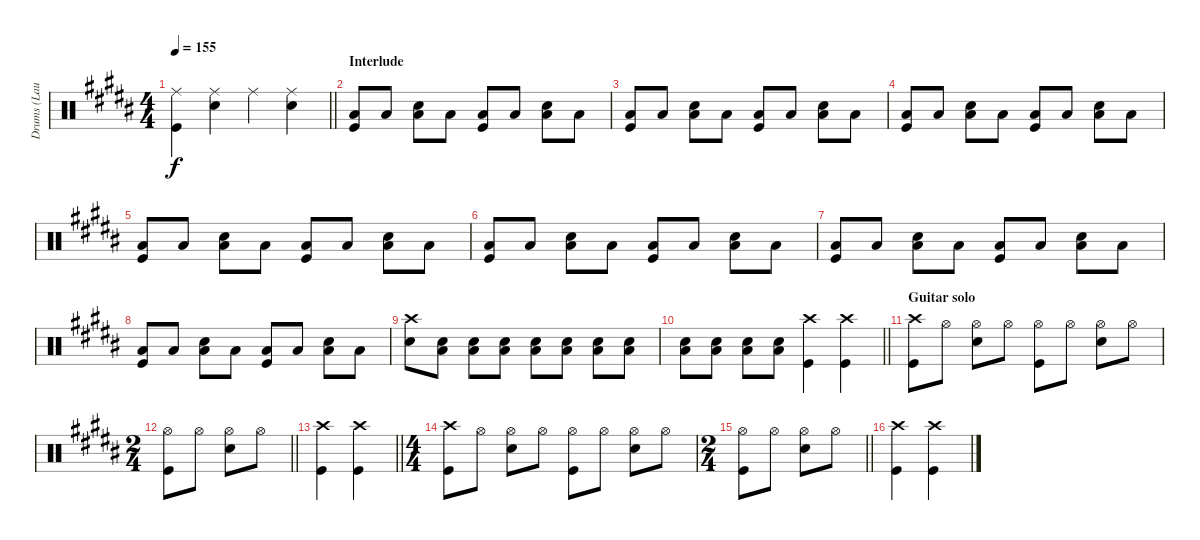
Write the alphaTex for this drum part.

\track ("Drums (Laust Sonne)" "Drums (Lau") {instrument percussion}
\staff {score}
\articulation defaults
\ts (4 4)
\tempo 155
\clef neutral
\barLineRight lightlight
\ks b
("Ride (middle)" "Kick (hit)").4{dy f} ("Ride (middle)" "Snare (hit) 2").4 "Ride (middle)".4 ("Ride (middle)" "Snare (hit) 2").4 |
\section ("" "Interlude")
("Kick (hit)" "Low Floor Tom (hit)").8 "Low Floor Tom (hit)".8 ("Snare (hit) 2" "Low Floor Tom (hit)").8 "Low Floor Tom (hit)".8 ("Kick (hit)" "Low Floor Tom (hit)").8 "Low Floor Tom (hit)".8 ("Snare (hit) 2" "Low Floor Tom (hit)").8 "Low Floor Tom (hit)".8 |
("Kick (hit)" "Low Floor Tom (hit)").8 "Low Floor Tom (hit)".8 ("Snare (hit) 2" "Low Floor Tom (hit)").8 "Low Floor Tom (hit)".8 ("Kick (hit)" "Low Floor Tom (hit)").8 "Low Floor Tom (hit)".8 ("Snare (hit) 2" "Low Floor Tom (hit)").8 "Low Floor Tom (hit)".8 |
("Kick (hit)" "Low Floor Tom (hit)").8 "Low Floor Tom (hit)".8 ("Snare (hit) 2" "Low Floor Tom (hit)").8 "Low Floor Tom (hit)".8 ("Kick (hit)" "Low Floor Tom (hit)").8 "Low Floor Tom (hit)".8 ("Snare (hit) 2" "Low Floor Tom (hit)").8 "Low Floor Tom (hit)".8 |
("Kick (hit)" "Low Floor Tom (hit)").8 "Low Floor Tom (hit)".8 ("Snare (hit) 2" "Low Floor Tom (hit)").8 "Low Floor Tom (hit)".8 ("Kick (hit)" "Low Floor Tom (hit)").8 "Low Floor Tom (hit)".8 ("Snare (hit) 2" "Low Floor Tom (hit)").8 "Low Floor Tom (hit)".8 |
("Kick (hit)" "Low Floor Tom (hit)").8 "Low Floor Tom (hit)".8 ("Snare (hit) 2" "Low Floor Tom (hit)").8 "Low Floor Tom (hit)".8 ("Kick (hit)" "Low Floor Tom (hit)").8 "Low Floor Tom (hit)".8 ("Snare (hit) 2" "Low Floor Tom (hit)").8 "Low Floor Tom (hit)".8 |
("Kick (hit)" "Low Floor Tom (hit)").8 "Low Floor Tom (hit)".8 ("Snare (hit) 2" "Low Floor Tom (hit)").8 "Low Floor Tom (hit)".8 ("Kick (hit)" "Low Floor Tom (hit)").8 "Low Floor Tom (hit)".8 ("Snare (hit) 2" "Low Floor Tom (hit)").8 "Low Floor Tom (hit)".8 |
("Kick (hit)" "Low Floor Tom (hit)").8 "Low Floor Tom (hit)".8 ("Snare (hit) 2" "Low Floor Tom (hit)").8 "Low Floor Tom (hit)".8 ("Kick (hit)" "Low Floor Tom (hit)").8 "Low Floor Tom (hit)".8 ("Snare (hit) 2" "Low Floor Tom (hit)").8 "Low Floor Tom (hit)".8 |
("Snare (hit) 2" "Crash high (hit)").8 ("Snare (hit) 2" "Low Floor Tom (hit)").8 ("Snare (hit) 2" "Low Floor Tom (hit)").8 ("Snare (hit) 2" "Low Floor Tom (hit)").8 ("Snare (hit) 2" "Low Floor Tom (hit)").8 ("Snare (hit) 2" "Low Floor Tom (hit)").8 ("Snare (hit) 2" "Low Floor Tom (hit)").8 ("Snare (hit) 2" "Low Floor Tom (hit)").8 |
\barLineRight lightlight
("Snare (hit) 2" "Low Floor Tom (hit)").8 ("Snare (hit) 2" "Low Floor Tom (hit)").8 ("Snare (hit) 2" "Low Floor Tom (hit)").8 ("Snare (hit) 2" "Low Floor Tom (hit)").8 ("Kick (hit)" "Crash high (hit)").4 ("Kick (hit)" "Crash high (hit)").4 |
\section ("" "Guitar solo")
("Crash high (hit)" "Kick (hit)").8 "Hi-Hat (open)".8 ("Hi-Hat (open)" "Snare (hit) 2").8 "Hi-Hat (open)".8 ("Hi-Hat (open)" "Kick (hit)").8 "Hi-Hat (open)".8 ("Hi-Hat (open)" "Snare (hit) 2").8 "Hi-Hat (open)".8 |
\ts (2 4)
\barLineRight lightlight
("Hi-Hat (open)" "Kick (hit)").8 "Hi-Hat (open)".8 ("Hi-Hat (open)" "Snare (hit) 2").8 "Hi-Hat (open)".8 |
\barLineRight lightlight
("Crash high (hit)" "Kick (hit)").4 ("Crash high (hit)" "Kick (hit)").4 |
\ts (4 4)
("Crash high (hit)" "Kick (hit)").8 "Hi-Hat (open)".8 ("Hi-Hat (open)" "Snare (hit) 2").8 "Hi-Hat (open)".8 ("Hi-Hat (open)" "Kick (hit)").8 "Hi-Hat (open)".8 ("Hi-Hat (open)" "Snare (hit) 2").8 "Hi-Hat (open)".8 |
\ts (2 4)
\barLineRight lightlight
("Hi-Hat (open)" "Kick (hit)").8 "Hi-Hat (open)".8 ("Hi-Hat (open)" "Snare (hit) 2").8 "Hi-Hat (open)".8 |
("Crash high (hit)" "Kick (hit)").4 ("Crash high (hit)" "Kick (hit)").4
